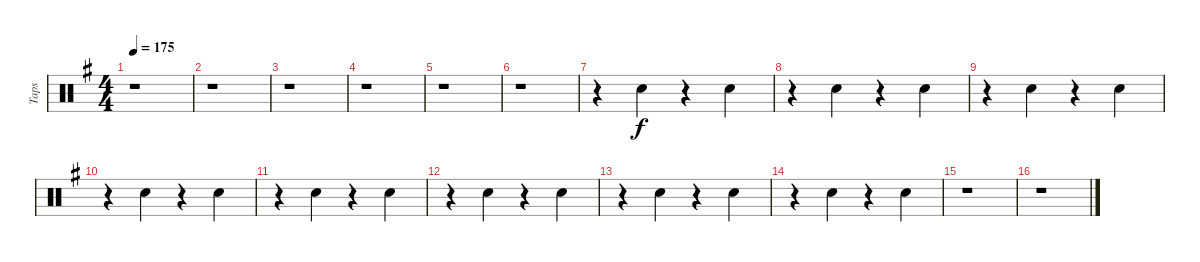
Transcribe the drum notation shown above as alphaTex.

\track ("Taps" "Taps") {instrument percussion}
\staff {score}
\articulation defaults
\ts (4 4)
\tempo 175
\clef neutral
\ks g
r.1{dy f} |
r.1 |
r.1 |
r.1 |
r.1 |
r.1 |
r.4 "Hand Clap (hit)".4 r.4 "Hand Clap (hit)".4 |
r.4 "Hand Clap (hit)".4 r.4 "Hand Clap (hit)".4 |
r.4 "Hand Clap (hit)".4 r.4 "Hand Clap (hit)".4 |
r.4 "Hand Clap (hit)".4 r.4 "Hand Clap (hit)".4 |
r.4 "Hand Clap (hit)".4 r.4 "Hand Clap (hit)".4 |
r.4 "Hand Clap (hit)".4 r.4 "Hand Clap (hit)".4 |
r.4 "Hand Clap (hit)".4 r.4 "Hand Clap (hit)".4 |
r.4 "Hand Clap (hit)".4 r.4 "Hand Clap (hit)".4 |
r.1 |
r.1
